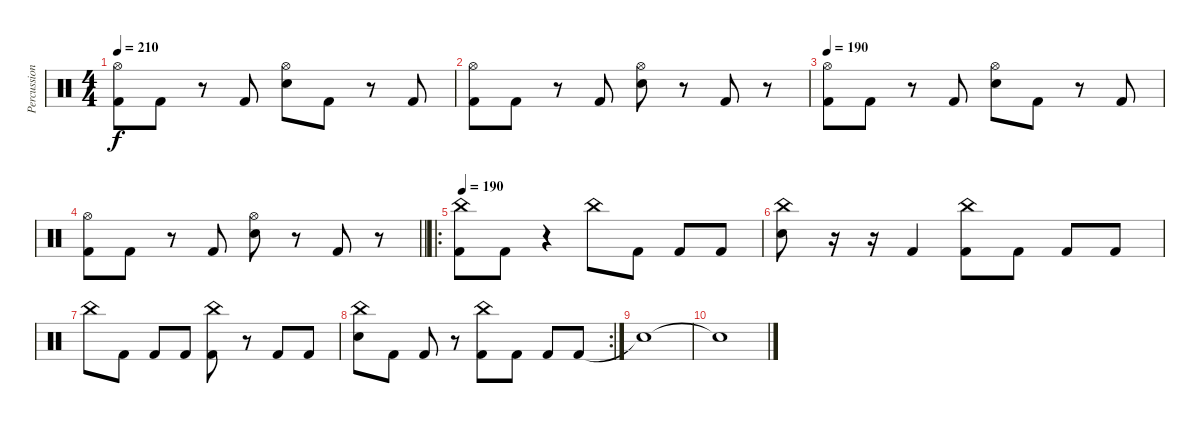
\track ("Percussion" "Percussion") {instrument percussion}
\staff {score}
\articulation defaults
\ts (4 4)
\tempo 210
\clef neutral
\ks c
("Hi-Hat (open)" "Kick (hit) 2").8{dy f} "Kick (hit) 2".8 r.8 "Kick (hit) 2".8 ("Hi-Hat (open)" "Electric Snare (hit)").8 "Kick (hit) 2".8 r.8 "Kick (hit) 2".8 |
("Hi-Hat (open)" "Kick (hit) 2").8 "Kick (hit) 2".8 r.8 "Kick (hit) 2".8 ("Hi-Hat (open)" "Electric Snare (hit)").8 r.8 "Kick (hit) 2".8 r.8 |
\tempo 190
("Hi-Hat (open)" "Kick (hit) 2").8 "Kick (hit) 2".8 r.8 "Kick (hit) 2".8 ("Hi-Hat (open)" "Electric Snare (hit)").8 "Kick (hit) 2".8 r.8 "Kick (hit) 2".8 |
\barLineRight lightlight
("Hi-Hat (open)" "Kick (hit) 2").8 "Kick (hit) 2".8 r.8 "Kick (hit) 2".8 ("Hi-Hat (open)" "Electric Snare (hit)").8 r.8 "Kick (hit) 2".8 r.8 |
\ro
\tempo 190
("China (hit)" "Kick (hit) 2").8 "Kick (hit) 2".8 r.4 "China (hit)".8 "Kick (hit) 2".8 "Kick (hit) 2".8 "Kick (hit) 2".8 |
("China (hit)" "Electric Snare (hit)").8 r.16 r.16 "Kick (hit) 2".4 ("China (hit)" "Kick (hit) 2").8 "Kick (hit) 2".8 "Kick (hit) 2".8 "Kick (hit) 2".8 |
"China (hit)".8 "Kick (hit) 2".8 "Kick (hit) 2".8 "Kick (hit) 2".8 ("China (hit)" "Kick (hit) 2").8 r.8 "Kick (hit) 2".8 "Kick (hit) 2".8 |
\rc 2
("China (hit)" "Electric Snare (hit)").8 "Kick (hit) 2".8 "Kick (hit) 2".8 r.8 ("China (hit)" "Kick (hit) 2").8 "Kick (hit) 2".8 "Kick (hit) 2".8 "Kick (hit) 2".8 |
"Snare (hit)"{t}.1 |
"Snare (hit)"{t}.1
